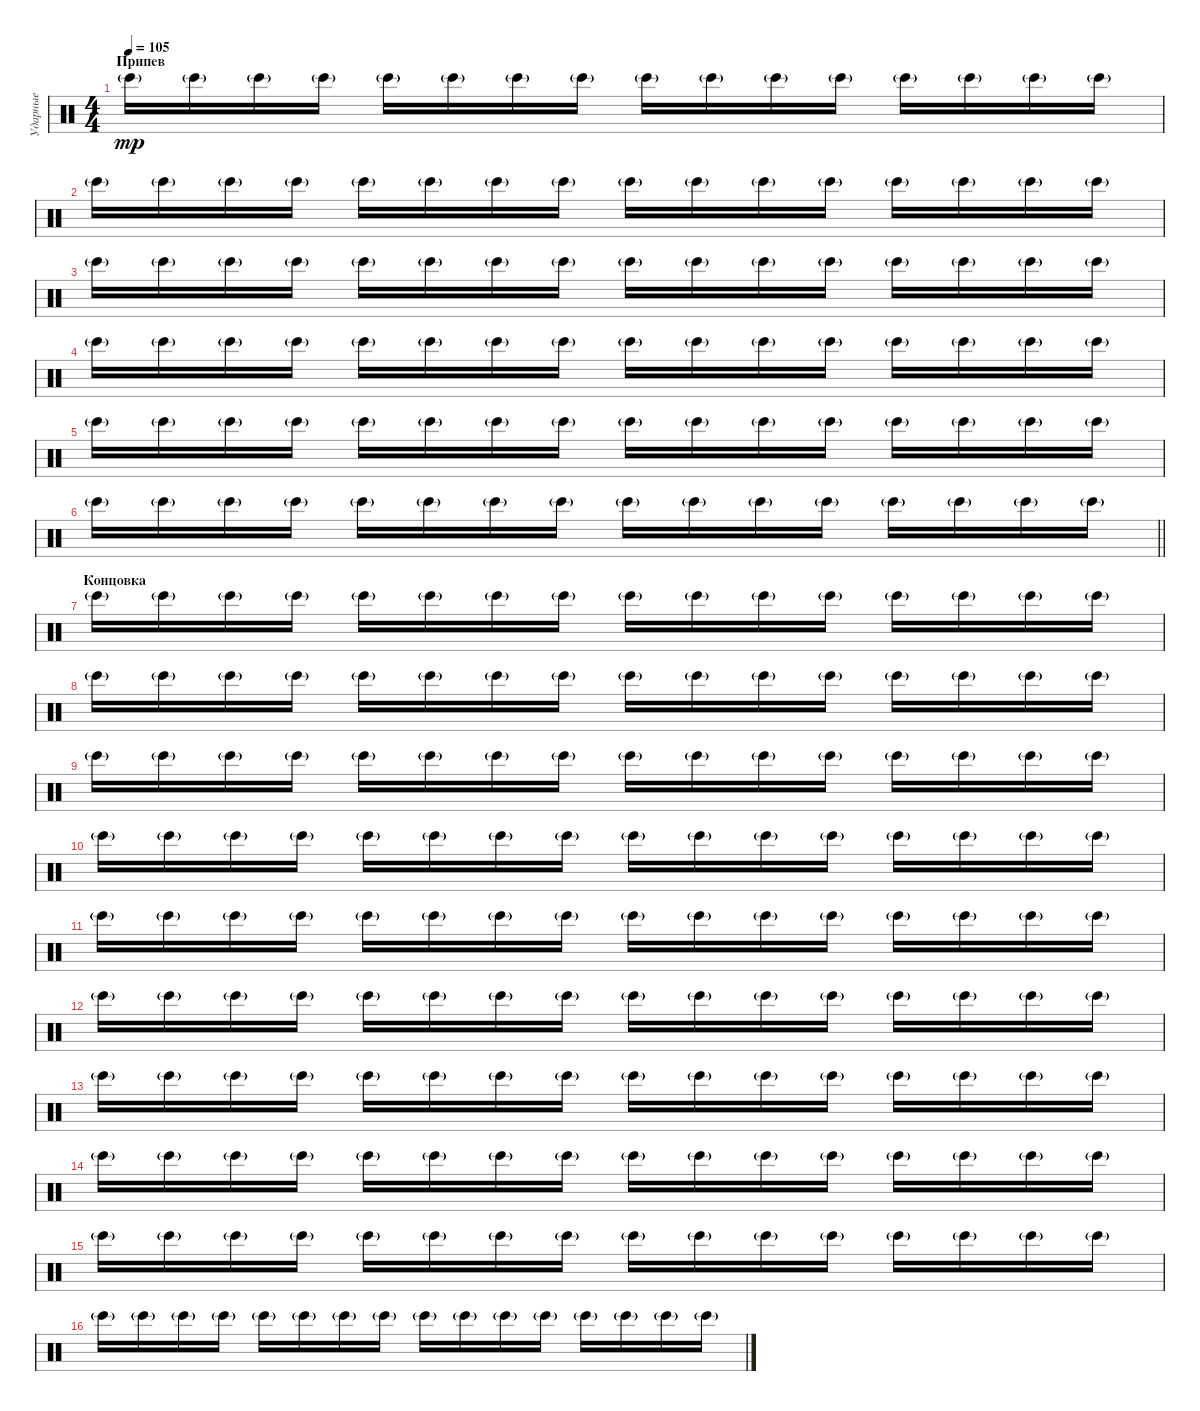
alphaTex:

\track ("Ударные" "Ударные") {instrument percussion}
\staff {score}
\articulation defaults
\ts (4 4)
\section ("" "Припев")
\tempo 105
\clef neutral
\ks c "Bongo High (hit)"{g}.16{dy mp} "Bongo High (hit)"{g}.16 "Bongo High (hit)"{g}.16 "Bongo High (hit)"{g}.16 "Bongo High (hit)"{g}.16 "Bongo High (hit)"{g}.16 "Bongo High (hit)"{g}.16 "Bongo High (hit)"{g}.16 "Bongo High (hit)"{g}.16 "Bongo High (hit)"{g}.16 "Bongo High (hit)"{g}.16 "Bongo High (hit)"{g}.16 "Bongo High (hit)"{g}.16 "Bongo High (hit)"{g}.16 "Bongo High (hit)"{g}.16 "Bongo High (hit)"{g}.16
|
"Bongo High (hit)"{g}.16 "Bongo High (hit)"{g}.16 "Bongo High (hit)"{g}.16 "Bongo High (hit)"{g}.16 "Bongo High (hit)"{g}.16 "Bongo High (hit)"{g}.16 "Bongo High (hit)"{g}.16 "Bongo High (hit)"{g}.16 "Bongo High (hit)"{g}.16 "Bongo High (hit)"{g}.16 "Bongo High (hit)"{g}.16 "Bongo High (hit)"{g}.16 "Bongo High (hit)"{g}.16 "Bongo High (hit)"{g}.16 "Bongo High (hit)"{g}.16 "Bongo High (hit)"{g}.16 |
"Bongo High (hit)"{g}.16 "Bongo High (hit)"{g}.16 "Bongo High (hit)"{g}.16 "Bongo High (hit)"{g}.16 "Bongo High (hit)"{g}.16 "Bongo High (hit)"{g}.16 "Bongo High (hit)"{g}.16 "Bongo High (hit)"{g}.16 "Bongo High (hit)"{g}.16 "Bongo High (hit)"{g}.16 "Bongo High (hit)"{g}.16 "Bongo High (hit)"{g}.16 "Bongo High (hit)"{g}.16 "Bongo High (hit)"{g}.16 "Bongo High (hit)"{g}.16 "Bongo High (hit)"{g}.16 |
"Bongo High (hit)"{g}.16 "Bongo High (hit)"{g}.16 "Bongo High (hit)"{g}.16 "Bongo High (hit)"{g}.16 "Bongo High (hit)"{g}.16 "Bongo High (hit)"{g}.16 "Bongo High (hit)"{g}.16 "Bongo High (hit)"{g}.16 "Bongo High (hit)"{g}.16 "Bongo High (hit)"{g}.16 "Bongo High (hit)"{g}.16 "Bongo High (hit)"{g}.16 "Bongo High (hit)"{g}.16 "Bongo High (hit)"{g}.16 "Bongo High (hit)"{g}.16 "Bongo High (hit)"{g}.16 |
"Bongo High (hit)"{g}.16 "Bongo High (hit)"{g}.16 "Bongo High (hit)"{g}.16 "Bongo High (hit)"{g}.16 "Bongo High (hit)"{g}.16 "Bongo High (hit)"{g}.16 "Bongo High (hit)"{g}.16 "Bongo High (hit)"{g}.16 "Bongo High (hit)"{g}.16 "Bongo High (hit)"{g}.16 "Bongo High (hit)"{g}.16 "Bongo High (hit)"{g}.16 "Bongo High (hit)"{g}.16 "Bongo High (hit)"{g}.16 "Bongo High (hit)"{g}.16 "Bongo High (hit)"{g}.16 |
\barLineRight lightlight "Bongo High (hit)"{g}.16 "Bongo High (hit)"{g}.16 "Bongo High (hit)"{g}.16 "Bongo High (hit)"{g}.16 "Bongo High (hit)"{g}.16 "Bongo High (hit)"{g}.16 "Bongo High (hit)"{g}.16 "Bongo High (hit)"{g}.16 "Bongo High (hit)"{g}.16 "Bongo High (hit)"{g}.16 "Bongo High (hit)"{g}.16 "Bongo High (hit)"{g}.16 "Bongo High (hit)"{g}.16 "Bongo High (hit)"{g}.16 "Bongo High (hit)"{g}.16 "Bongo High (hit)"{g}.16
|
\section ("" "Концовка")
"Bongo High (hit)"{g}.16 "Bongo High (hit)"{g}.16 "Bongo High (hit)"{g}.16 "Bongo High (hit)"{g}.16 "Bongo High (hit)"{g}.16 "Bongo High (hit)"{g}.16 "Bongo High (hit)"{g}.16 "Bongo High (hit)"{g}.16 "Bongo High (hit)"{g}.16 "Bongo High (hit)"{g}.16 "Bongo High (hit)"{g}.16 "Bongo High (hit)"{g}.16 "Bongo High (hit)"{g}.16 "Bongo High (hit)"{g}.16 "Bongo High (hit)"{g}.16 "Bongo High (hit)"{g}.16 |
"Bongo High (hit)"{g}.16 "Bongo High (hit)"{g}.16 "Bongo High (hit)"{g}.16 "Bongo High (hit)"{g}.16 "Bongo High (hit)"{g}.16 "Bongo High (hit)"{g}.16 "Bongo High (hit)"{g}.16 "Bongo High (hit)"{g}.16 "Bongo High (hit)"{g}.16 "Bongo High (hit)"{g}.16 "Bongo High (hit)"{g}.16 "Bongo High (hit)"{g}.16 "Bongo High (hit)"{g}.16 "Bongo High (hit)"{g}.16 "Bongo High (hit)"{g}.16 "Bongo High (hit)"{g}.16 |
"Bongo High (hit)"{g}.16 "Bongo High (hit)"{g}.16 "Bongo High (hit)"{g}.16 "Bongo High (hit)"{g}.16 "Bongo High (hit)"{g}.16 "Bongo High (hit)"{g}.16 "Bongo High (hit)"{g}.16 "Bongo High (hit)"{g}.16 "Bongo High (hit)"{g}.16 "Bongo High (hit)"{g}.16 "Bongo High (hit)"{g}.16 "Bongo High (hit)"{g}.16 "Bongo High (hit)"{g}.16 "Bongo High (hit)"{g}.16 "Bongo High (hit)"{g}.16 "Bongo High (hit)"{g}.16 |
"Bongo High (hit)"{g}.16 "Bongo High (hit)"{g}.16 "Bongo High (hit)"{g}.16 "Bongo High (hit)"{g}.16 "Bongo High (hit)"{g}.16 "Bongo High (hit)"{g}.16 "Bongo High (hit)"{g}.16 "Bongo High (hit)"{g}.16 "Bongo High (hit)"{g}.16 "Bongo High (hit)"{g}.16 "Bongo High (hit)"{g}.16 "Bongo High (hit)"{g}.16 "Bongo High (hit)"{g}.16 "Bongo High (hit)"{g}.16 "Bongo High (hit)"{g}.16 "Bongo High (hit)"{g}.16 |
"Bongo High (hit)"{g}.16 "Bongo High (hit)"{g}.16 "Bongo High (hit)"{g}.16 "Bongo High (hit)"{g}.16 "Bongo High (hit)"{g}.16 "Bongo High (hit)"{g}.16 "Bongo High (hit)"{g}.16 "Bongo High (hit)"{g}.16 "Bongo High (hit)"{g}.16 "Bongo High (hit)"{g}.16 "Bongo High (hit)"{g}.16 "Bongo High (hit)"{g}.16 "Bongo High (hit)"{g}.16 "Bongo High (hit)"{g}.16 "Bongo High (hit)"{g}.16 "Bongo High (hit)"{g}.16 |
"Bongo High (hit)"{g}.16 "Bongo High (hit)"{g}.16 "Bongo High (hit)"{g}.16 "Bongo High (hit)"{g}.16 "Bongo High (hit)"{g}.16 "Bongo High (hit)"{g}.16 "Bongo High (hit)"{g}.16 "Bongo High (hit)"{g}.16 "Bongo High (hit)"{g}.16 "Bongo High (hit)"{g}.16 "Bongo High (hit)"{g}.16 "Bongo High (hit)"{g}.16 "Bongo High (hit)"{g}.16 "Bongo High (hit)"{g}.16 "Bongo High (hit)"{g}.16 "Bongo High (hit)"{g}.16 |
"Bongo High (hit)"{g}.16 "Bongo High (hit)"{g}.16 "Bongo High (hit)"{g}.16 "Bongo High (hit)"{g}.16 "Bongo High (hit)"{g}.16 "Bongo High (hit)"{g}.16 "Bongo High (hit)"{g}.16 "Bongo High (hit)"{g}.16 "Bongo High (hit)"{g}.16 "Bongo High (hit)"{g}.16 "Bongo High (hit)"{g}.16 "Bongo High (hit)"{g}.16 "Bongo High (hit)"{g}.16 "Bongo High (hit)"{g}.16 "Bongo High (hit)"{g}.16 "Bongo High (hit)"{g}.16 |
"Bongo High (hit)"{g}.16 "Bongo High (hit)"{g}.16 "Bongo High (hit)"{g}.16 "Bongo High (hit)"{g}.16 "Bongo High (hit)"{g}.16 "Bongo High (hit)"{g}.16 "Bongo High (hit)"{g}.16 "Bongo High (hit)"{g}.16 "Bongo High (hit)"{g}.16 "Bongo High (hit)"{g}.16 "Bongo High (hit)"{g}.16 "Bongo High (hit)"{g}.16 "Bongo High (hit)"{g}.16 "Bongo High (hit)"{g}.16 "Bongo High (hit)"{g}.16 "Bongo High (hit)"{g}.16 |
"Bongo High (hit)"{g}.16 "Bongo High (hit)"{g}.16 "Bongo High (hit)"{g}.16 "Bongo High (hit)"{g}.16 "Bongo High (hit)"{g}.16 "Bongo High (hit)"{g}.16 "Bongo High (hit)"{g}.16 "Bongo High (hit)"{g}.16 "Bongo High (hit)"{g}.16 "Bongo High (hit)"{g}.16 "Bongo High (hit)"{g}.16 "Bongo High (hit)"{g}.16 "Bongo High (hit)"{g}.16 "Bongo High (hit)"{g}.16 "Bongo High (hit)"{g}.16 "Bongo High (hit)"{g}.16 |
"Bongo High (hit)"{g}.16 "Bongo High (hit)"{g}.16 "Bongo High (hit)"{g}.16 "Bongo High (hit)"{g}.16 "Bongo High (hit)"{g}.16 "Bongo High (hit)"{g}.16 "Bongo High (hit)"{g}.16 "Bongo High (hit)"{g}.16 "Bongo High (hit)"{g}.16 "Bongo High (hit)"{g}.16 "Bongo High (hit)"{g}.16 "Bongo High (hit)"{g}.16 "Bongo High (hit)"{g}.16 "Bongo High (hit)"{g}.16 "Bongo High (hit)"{g}.16 "Bongo High (hit)"{g}.16
